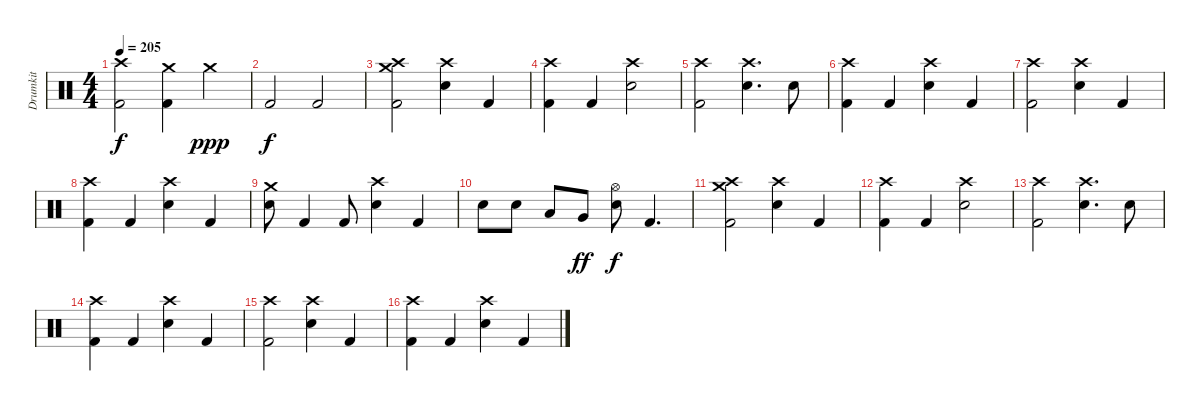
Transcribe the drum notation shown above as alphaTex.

\track ("Drumkit" "Drumkit") {instrument percussion}
\staff {score}
\articulation defaults
\ts (4 4)
\tempo 205
\clef neutral
\ks c
("Crash high (hit)" "Kick (hit) 2").2{dy f} ("Crash medium (hit)" "Kick (hit) 2").4 "Crash medium (hit)".4{dy ppp} |
"Kick (hit) 2".2{dy f} "Kick (hit) 2".2 |
("Crash high (hit)" "Crash medium (hit)" "Kick (hit) 2").2 ("Crash high (hit)" "Electric Snare (hit)").4 "Kick (hit) 2".4 |
("Crash high (hit)" "Kick (hit) 2").4 "Kick (hit) 2".4 ("Crash high (hit)" "Electric Snare (hit)").2 |
("Crash high (hit)" "Kick (hit) 2").2 ("Crash high (hit)" "Electric Snare (hit)").4{d} "Electric Snare (hit)".8 |
("Crash high (hit)" "Kick (hit) 2").4 "Kick (hit) 2".4 ("Crash high (hit)" "Electric Snare (hit)").4 "Kick (hit) 2".4 |
("Crash high (hit)" "Kick (hit) 2").2 ("Crash high (hit)" "Electric Snare (hit)").4 "Kick (hit) 2".4 |
("Crash high (hit)" "Kick (hit) 2").4 "Kick (hit) 2".4 ("Crash high (hit)" "Electric Snare (hit)").4 "Kick (hit) 2".4 |
("Crash medium (hit)" "Electric Snare (hit)").8 "Kick (hit) 2".4 "Kick (hit) 2".8 ("Crash high (hit)" "Electric Snare (hit)").4 "Kick (hit) 2".4 |
"Electric Snare (hit)".8 "Electric Snare (hit)".8 "Low Tom (hit)".8 "Very Low Tom (hit)".8{dy ff} ("Hi-Hat (open)" "Electric Snare (hit)").8{dy f} "Kick (hit) 2".4{d} |
("Crash high (hit)" "Crash medium (hit)" "Kick (hit) 2").2 ("Crash high (hit)" "Electric Snare (hit)").4 "Kick (hit) 2".4 |
("Crash high (hit)" "Kick (hit) 2").4 "Kick (hit) 2".4 ("Crash high (hit)" "Electric Snare (hit)").2 |
("Crash high (hit)" "Kick (hit) 2").2 ("Crash high (hit)" "Electric Snare (hit)").4{d} "Electric Snare (hit)".8 |
("Crash high (hit)" "Kick (hit) 2").4 "Kick (hit) 2".4 ("Crash high (hit)" "Electric Snare (hit)").4 "Kick (hit) 2".4 |
("Crash high (hit)" "Kick (hit) 2").2 ("Crash high (hit)" "Electric Snare (hit)").4 "Kick (hit) 2".4 |
("Crash high (hit)" "Kick (hit) 2").4 "Kick (hit) 2".4 ("Crash high (hit)" "Electric Snare (hit)").4 "Kick (hit) 2".4
